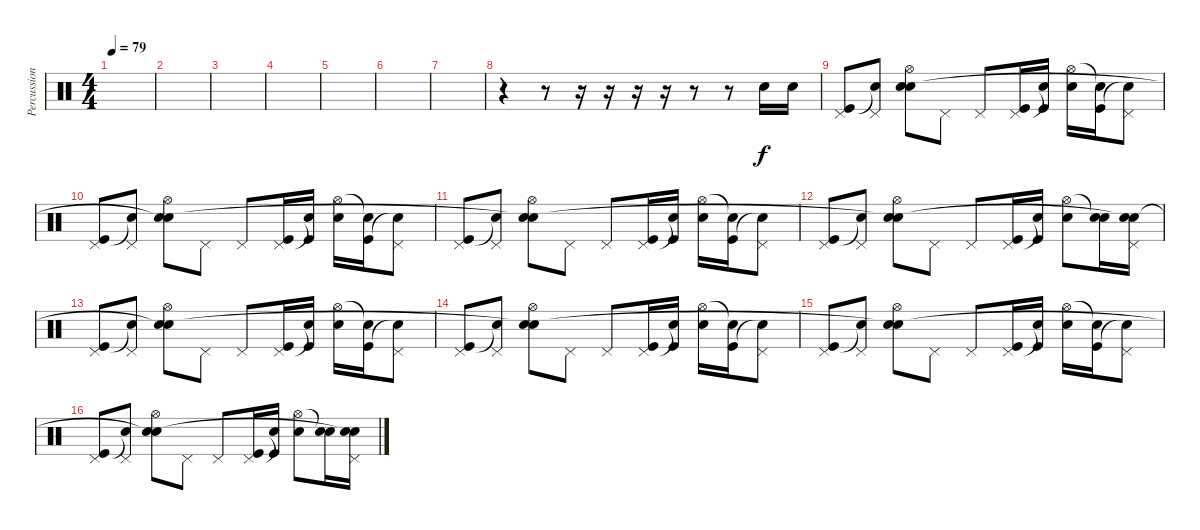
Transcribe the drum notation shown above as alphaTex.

\track ("Percussion" "Percussion") {instrument percussion}
\staff {score}
\articulation defaults
\ts (4 4)
\tempo 79
\clef neutral
\ks c
|
|
|
|
|
|
|
r.4 r.8 r.16 r.16 r.16 r.16 r.8 r.8 "Electric Snare (hit)".16 "Electric Snare (hit)".16 |
("Pedal Hi-Hat (hit)" "Kick (hit)").8 ("Pedal Hi-Hat (hit)" "Snare (hit)"{t}).8 ("Hi-Hat (open)" "Electric Snare (hit)" "Snare (hit)").8 "Pedal Hi-Hat (hit)".8 "Pedal Hi-Hat (hit)".8 ("Pedal Hi-Hat (hit)" "Kick (hit)").16 ("Snare (hit)"{t} "Kick (hit)").16 ("Hi-Hat (open)" "Electric Snare (hit)").16 ("Snare (hit)"{t} "Kick (hit)").16 ("Pedal Hi-Hat (hit)" "Snare (hit)"{t}).8 |
("Pedal Hi-Hat (hit)" "Kick (hit)").8 ("Pedal Hi-Hat (hit)" "Snare (hit)"{t}).8 ("Hi-Hat (open)" "Electric Snare (hit)" "Snare (hit)"{t}).8 "Pedal Hi-Hat (hit)".8 "Pedal Hi-Hat (hit)".8 ("Pedal Hi-Hat (hit)" "Kick (hit)").16 ("Snare (hit)"{t} "Kick (hit)").16 ("Hi-Hat (open)" "Electric Snare (hit)").16 ("Snare (hit)"{t} "Kick (hit)").16 ("Pedal Hi-Hat (hit)" "Snare (hit)"{t}).8 |
("Pedal Hi-Hat (hit)" "Kick (hit)").8 ("Pedal Hi-Hat (hit)" "Snare (hit)"{t}).8 ("Hi-Hat (open)" "Electric Snare (hit)" "Snare (hit)"{t}).8 "Pedal Hi-Hat (hit)".8 "Pedal Hi-Hat (hit)".8 ("Pedal Hi-Hat (hit)" "Kick (hit)").16 ("Snare (hit)"{t} "Kick (hit)").16 ("Hi-Hat (open)" "Electric Snare (hit)").16 ("Snare (hit)"{t} "Kick (hit)").16 ("Pedal Hi-Hat (hit)" "Snare (hit)"{t}).8 |
("Pedal Hi-Hat (hit)" "Kick (hit)").8 ("Pedal Hi-Hat (hit)" "Snare (hit)"{t}).8 ("Hi-Hat (open)" "Electric Snare (hit)" "Snare (hit)"{t}).8 "Pedal Hi-Hat (hit)".8 "Pedal Hi-Hat (hit)".8 ("Pedal Hi-Hat (hit)" "Kick (hit)").16 ("Snare (hit)"{t} "Kick (hit)").16 ("Hi-Hat (open)" "Electric Snare (hit)").8 ("Snare (hit)"{t} "Electric Snare (hit)").16 ("Pedal Hi-Hat (hit)" "Electric Snare (hit)" "Snare (hit)"{t}).16 |
("Pedal Hi-Hat (hit)" "Kick (hit)").8 ("Pedal Hi-Hat (hit)" "Snare (hit)"{t}).8 ("Hi-Hat (open)" "Electric Snare (hit)" "Snare (hit)"{t}).8 "Pedal Hi-Hat (hit)".8 "Pedal Hi-Hat (hit)".8 ("Pedal Hi-Hat (hit)" "Kick (hit)").16 ("Snare (hit)"{t} "Kick (hit)").16 ("Hi-Hat (open)" "Electric Snare (hit)").16 ("Snare (hit)"{t} "Kick (hit)").16 ("Pedal Hi-Hat (hit)" "Snare (hit)"{t}).8 |
("Pedal Hi-Hat (hit)" "Kick (hit)").8 ("Pedal Hi-Hat (hit)" "Snare (hit)"{t}).8 ("Hi-Hat (open)" "Electric Snare (hit)" "Snare (hit)"{t}).8 "Pedal Hi-Hat (hit)".8 "Pedal Hi-Hat (hit)".8 ("Pedal Hi-Hat (hit)" "Kick (hit)").16 ("Snare (hit)"{t} "Kick (hit)").16 ("Hi-Hat (open)" "Electric Snare (hit)").16 ("Snare (hit)"{t} "Kick (hit)").16 ("Pedal Hi-Hat (hit)" "Snare (hit)"{t}).8 |
("Pedal Hi-Hat (hit)" "Kick (hit)").8 ("Pedal Hi-Hat (hit)" "Snare (hit)"{t}).8 ("Hi-Hat (open)" "Electric Snare (hit)" "Snare (hit)"{t}).8 "Pedal Hi-Hat (hit)".8 "Pedal Hi-Hat (hit)".8 ("Pedal Hi-Hat (hit)" "Kick (hit)").16 ("Snare (hit)"{t} "Kick (hit)").16 ("Hi-Hat (open)" "Electric Snare (hit)").16 ("Snare (hit)"{t} "Kick (hit)").16 ("Pedal Hi-Hat (hit)" "Snare (hit)"{t}).8 |
("Pedal Hi-Hat (hit)" "Kick (hit)").8 ("Pedal Hi-Hat (hit)" "Snare (hit)"{t}).8 ("Hi-Hat (open)" "Electric Snare (hit)" "Snare (hit)"{t}).8 "Pedal Hi-Hat (hit)".8 "Pedal Hi-Hat (hit)".8 ("Pedal Hi-Hat (hit)" "Kick (hit)").16 ("Snare (hit)"{t} "Kick (hit)").16 ("Hi-Hat (open)" "Electric Snare (hit)").8 ("Snare (hit)"{t} "Electric Snare (hit)").16 ("Pedal Hi-Hat (hit)" "Electric Snare (hit)" "Snare (hit)"{t}).16
